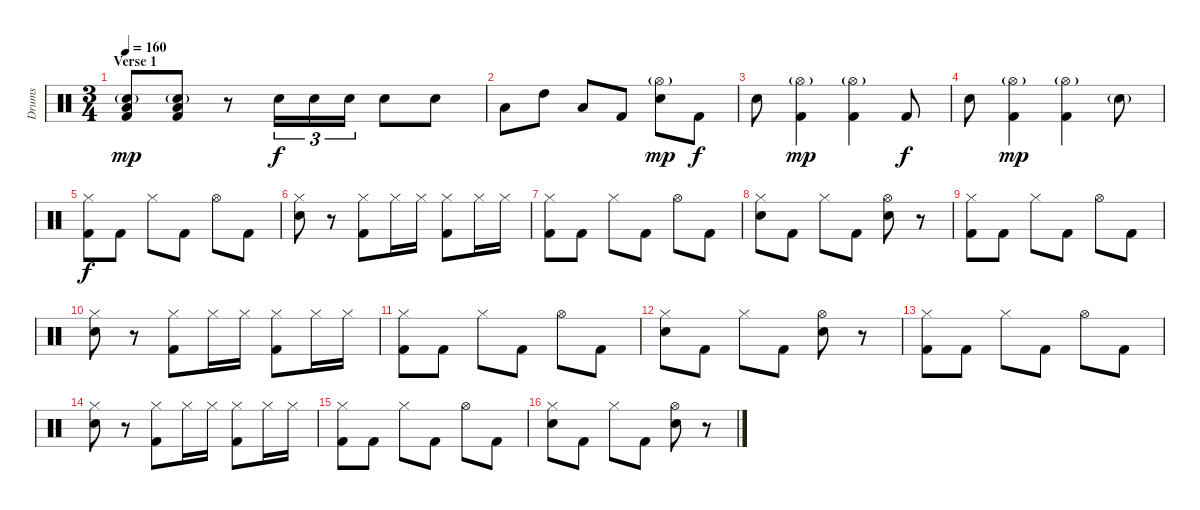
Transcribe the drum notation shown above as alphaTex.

\track ("Drums" "Drums") {instrument percussion}
\staff {score}
\articulation defaults
\ts (3 4)
\section ("" "Verse 1")
\tempo 160
\clef neutral
\ks c
("Low Floor Tom (hit)" "Snare (hit) 2"{g} "Kick (hit) 2").8{dy mp} ("Low Floor Tom (hit)" "Snare (hit) 2"{g} "Kick (hit) 2").8 r.8 "Snare (hit) 2".16{tu (3 2) dy f} "Snare (hit) 2".16{tu (3 2)} "Snare (hit) 2".16{tu (3 2)} "Snare (hit) 2".8 "Snare (hit) 2".8 |
"Low Tom (hit)".8 "High Tom (hit)".8 "Low Floor Tom (hit)".8 "Kick (hit) 2".8 ("Hi-Hat (open)"{g} "Snare (hit) 2").8{dy mp} "Kick (hit) 2".8{dy f} |
"Snare (hit) 2".8 ("Hi-Hat (open)"{g} "Kick (hit) 2").4{dy mp} ("Hi-Hat (open)"{g} "Kick (hit) 2").4 "Kick (hit) 2".8{dy f} |
"Snare (hit) 2".8 ("Hi-Hat (open)"{g} "Kick (hit) 2").4{dy mp} ("Hi-Hat (open)"{g} "Kick (hit) 2").4 "Snare (hit) 2"{g}.8 |
("Hi-Hat (closed)" "Kick (hit) 2").8{dy f} "Kick (hit) 2".8 "Hi-Hat (closed)".8 "Kick (hit) 2".8 "Hi-Hat (open)".8 "Kick (hit) 2".8 |
("Hi-Hat (closed)" "Snare (hit) 2").8 r.8 ("Hi-Hat (closed)" "Kick (hit) 2").8 "Hi-Hat (closed)".16 "Hi-Hat (closed)".16 ("Hi-Hat (closed)" "Kick (hit) 2").8 "Hi-Hat (closed)".16 "Hi-Hat (closed)".16 |
("Hi-Hat (closed)" "Kick (hit) 2").8 "Kick (hit) 2".8 "Hi-Hat (closed)".8 "Kick (hit) 2".8 "Hi-Hat (open)".8 "Kick (hit) 2".8 |
("Hi-Hat (closed)" "Snare (hit) 2").8 "Kick (hit) 2".8 "Hi-Hat (closed)".8 "Kick (hit) 2".8 ("Hi-Hat (open)" "Snare (hit) 2").8 r.8 |
("Hi-Hat (closed)" "Kick (hit) 2").8 "Kick (hit) 2".8 "Hi-Hat (closed)".8 "Kick (hit) 2".8 "Hi-Hat (open)".8 "Kick (hit) 2".8 |
("Hi-Hat (closed)" "Snare (hit) 2").8 r.8 ("Hi-Hat (closed)" "Kick (hit) 2").8 "Hi-Hat (closed)".16 "Hi-Hat (closed)".16 ("Hi-Hat (closed)" "Kick (hit) 2").8 "Hi-Hat (closed)".16 "Hi-Hat (closed)".16 |
("Hi-Hat (closed)" "Kick (hit) 2").8 "Kick (hit) 2".8 "Hi-Hat (closed)".8 "Kick (hit) 2".8 "Hi-Hat (open)".8 "Kick (hit) 2".8 |
("Hi-Hat (closed)" "Snare (hit) 2").8 "Kick (hit) 2".8 "Hi-Hat (closed)".8 "Kick (hit) 2".8 ("Hi-Hat (open)" "Snare (hit) 2").8 r.8 |
("Hi-Hat (closed)" "Kick (hit) 2").8 "Kick (hit) 2".8 "Hi-Hat (closed)".8 "Kick (hit) 2".8 "Hi-Hat (open)".8 "Kick (hit) 2".8 |
("Hi-Hat (closed)" "Snare (hit) 2").8 r.8 ("Hi-Hat (closed)" "Kick (hit) 2").8 "Hi-Hat (closed)".16 "Hi-Hat (closed)".16 ("Hi-Hat (closed)" "Kick (hit) 2").8 "Hi-Hat (closed)".16 "Hi-Hat (closed)".16 |
("Hi-Hat (closed)" "Kick (hit) 2").8 "Kick (hit) 2".8 "Hi-Hat (closed)".8 "Kick (hit) 2".8 "Hi-Hat (open)".8 "Kick (hit) 2".8 |
("Hi-Hat (closed)" "Snare (hit) 2").8 "Kick (hit) 2".8 "Hi-Hat (closed)".8 "Kick (hit) 2".8 ("Hi-Hat (open)" "Snare (hit) 2").8 r.8
